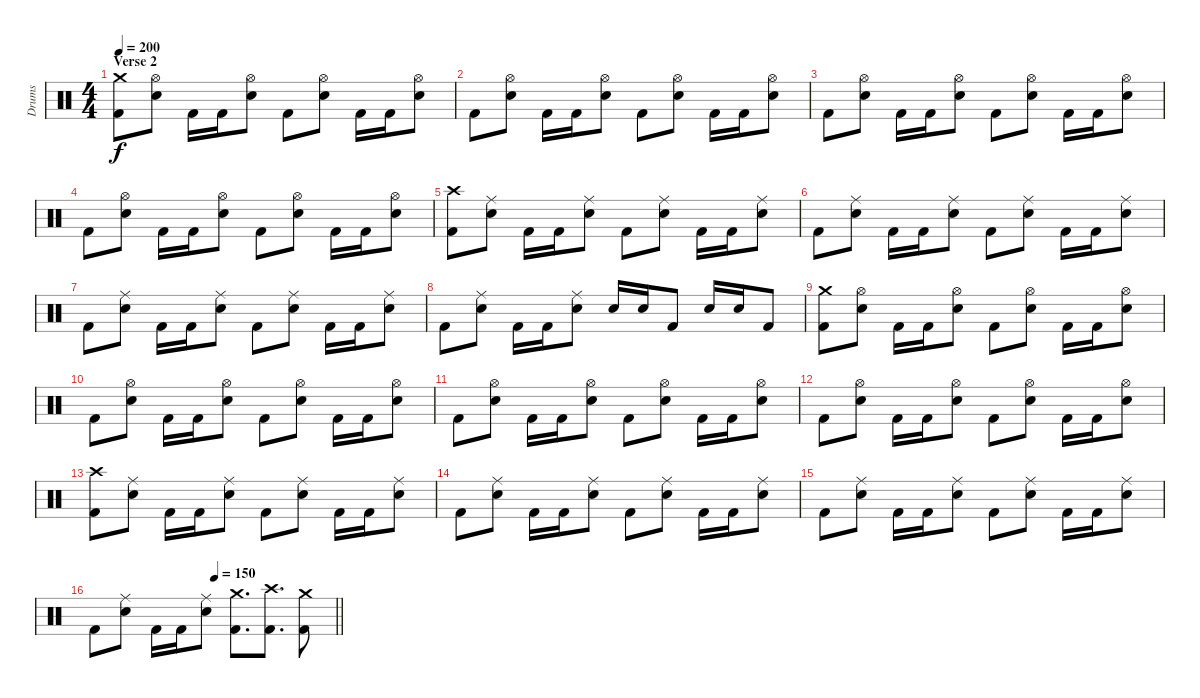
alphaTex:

\track ("Drums" "Drums") {instrument percussion}
\staff {score}
\articulation defaults
\ts (4 4)
\section ("" "Verse 2")
\tempo 200
\clef neutral
\ks c
("Crash medium (hit)" "Kick (hit) 2").8{dy f} ("Hi-Hat (open)" "Electric Snare (hit)").8 "Kick (hit) 2".16 "Kick (hit) 2".16 ("Hi-Hat (open)" "Electric Snare (hit)").8 "Kick (hit) 2".8 ("Hi-Hat (open)" "Electric Snare (hit)").8 "Kick (hit) 2".16 "Kick (hit) 2".16 ("Hi-Hat (open)" "Electric Snare (hit)").8 |
"Kick (hit) 2".8 ("Hi-Hat (open)" "Electric Snare (hit)").8 "Kick (hit) 2".16 "Kick (hit) 2".16 ("Hi-Hat (open)" "Electric Snare (hit)").8 "Kick (hit) 2".8 ("Hi-Hat (open)" "Electric Snare (hit)").8 "Kick (hit) 2".16 "Kick (hit) 2".16 ("Hi-Hat (open)" "Electric Snare (hit)").8 |
"Kick (hit) 2".8 ("Hi-Hat (open)" "Electric Snare (hit)").8 "Kick (hit) 2".16 "Kick (hit) 2".16 ("Hi-Hat (open)" "Electric Snare (hit)").8 "Kick (hit) 2".8 ("Hi-Hat (open)" "Electric Snare (hit)").8 "Kick (hit) 2".16 "Kick (hit) 2".16 ("Hi-Hat (open)" "Electric Snare (hit)").8 |
"Kick (hit) 2".8 ("Hi-Hat (open)" "Electric Snare (hit)").8 "Kick (hit) 2".16 "Kick (hit) 2".16 ("Hi-Hat (open)" "Electric Snare (hit)").8 "Kick (hit) 2".8 ("Hi-Hat (open)" "Electric Snare (hit)").8 "Kick (hit) 2".16 "Kick (hit) 2".16 ("Hi-Hat (open)" "Electric Snare (hit)").8 |
("Crash high (hit)" "Kick (hit) 2").8 ("Ride (middle)" "Electric Snare (hit)").8 "Kick (hit) 2".16 "Kick (hit) 2".16 ("Ride (middle)" "Electric Snare (hit)").8 "Kick (hit) 2".8 ("Ride (middle)" "Electric Snare (hit)").8 "Kick (hit) 2".16 "Kick (hit) 2".16 ("Ride (middle)" "Electric Snare (hit)").8 |
"Kick (hit) 2".8 ("Ride (middle)" "Electric Snare (hit)").8 "Kick (hit) 2".16 "Kick (hit) 2".16 ("Ride (middle)" "Electric Snare (hit)").8 "Kick (hit) 2".8 ("Ride (middle)" "Electric Snare (hit)").8 "Kick (hit) 2".16 "Kick (hit) 2".16 ("Ride (middle)" "Electric Snare (hit)").8 |
"Kick (hit) 2".8 ("Ride (middle)" "Electric Snare (hit)").8 "Kick (hit) 2".16 "Kick (hit) 2".16 ("Ride (middle)" "Electric Snare (hit)").8 "Kick (hit) 2".8 ("Ride (middle)" "Electric Snare (hit)").8 "Kick (hit) 2".16 "Kick (hit) 2".16 ("Ride (middle)" "Electric Snare (hit)").8 |
"Kick (hit) 2".8 ("Ride (middle)" "Electric Snare (hit)").8 "Kick (hit) 2".16 "Kick (hit) 2".16 ("Ride (middle)" "Electric Snare (hit)").8 "Electric Snare (hit)".16 "Electric Snare (hit)".16 "Kick (hit) 2".8 "Electric Snare (hit)".16 "Electric Snare (hit)".16 "Kick (hit) 2".8 |
("Crash medium (hit)" "Kick (hit) 2").8 ("Hi-Hat (open)" "Electric Snare (hit)").8 "Kick (hit) 2".16 "Kick (hit) 2".16 ("Hi-Hat (open)" "Electric Snare (hit)").8 "Kick (hit) 2".8 ("Hi-Hat (open)" "Electric Snare (hit)").8 "Kick (hit) 2".16 "Kick (hit) 2".16 ("Hi-Hat (open)" "Electric Snare (hit)").8 |
"Kick (hit) 2".8 ("Hi-Hat (open)" "Electric Snare (hit)").8 "Kick (hit) 2".16 "Kick (hit) 2".16 ("Hi-Hat (open)" "Electric Snare (hit)").8 "Kick (hit) 2".8 ("Hi-Hat (open)" "Electric Snare (hit)").8 "Kick (hit) 2".16 "Kick (hit) 2".16 ("Hi-Hat (open)" "Electric Snare (hit)").8 |
"Kick (hit) 2".8 ("Hi-Hat (open)" "Electric Snare (hit)").8 "Kick (hit) 2".16 "Kick (hit) 2".16 ("Hi-Hat (open)" "Electric Snare (hit)").8 "Kick (hit) 2".8 ("Hi-Hat (open)" "Electric Snare (hit)").8 "Kick (hit) 2".16 "Kick (hit) 2".16 ("Hi-Hat (open)" "Electric Snare (hit)").8 |
"Kick (hit) 2".8 ("Hi-Hat (open)" "Electric Snare (hit)").8 "Kick (hit) 2".16 "Kick (hit) 2".16 ("Hi-Hat (open)" "Electric Snare (hit)").8 "Kick (hit) 2".8 ("Hi-Hat (open)" "Electric Snare (hit)").8 "Kick (hit) 2".16 "Kick (hit) 2".16 ("Hi-Hat (open)" "Electric Snare (hit)").8 |
("Crash high (hit)" "Kick (hit) 2").8 ("Ride (middle)" "Electric Snare (hit)").8 "Kick (hit) 2".16 "Kick (hit) 2".16 ("Ride (middle)" "Electric Snare (hit)").8 "Kick (hit) 2".8 ("Ride (middle)" "Electric Snare (hit)").8 "Kick (hit) 2".16 "Kick (hit) 2".16 ("Ride (middle)" "Electric Snare (hit)").8 |
"Kick (hit) 2".8 ("Ride (middle)" "Electric Snare (hit)").8 "Kick (hit) 2".16 "Kick (hit) 2".16 ("Ride (middle)" "Electric Snare (hit)").8 "Kick (hit) 2".8 ("Ride (middle)" "Electric Snare (hit)").8 "Kick (hit) 2".16 "Kick (hit) 2".16 ("Ride (middle)" "Electric Snare (hit)").8 |
"Kick (hit) 2".8 ("Ride (middle)" "Electric Snare (hit)").8 "Kick (hit) 2".16 "Kick (hit) 2".16 ("Ride (middle)" "Electric Snare (hit)").8 "Kick (hit) 2".8 ("Ride (middle)" "Electric Snare (hit)").8 "Kick (hit) 2".16 "Kick (hit) 2".16 ("Ride (middle)" "Electric Snare (hit)").8 |
\tempo (150 0.5)
\barLineRight lightlight "Kick (hit) 2".8
("Ride (middle)" "Electric Snare (hit)").8 "Kick (hit) 2".16 "Kick (hit) 2".16 ("Ride (middle)" "Electric Snare (hit)").8 ("Crash medium (hit)" "Kick (hit) 2").8{d} ("Crash high (hit)" "Kick (hit) 2").8{d} ("Crash medium (hit)" "Kick (hit) 2").8
